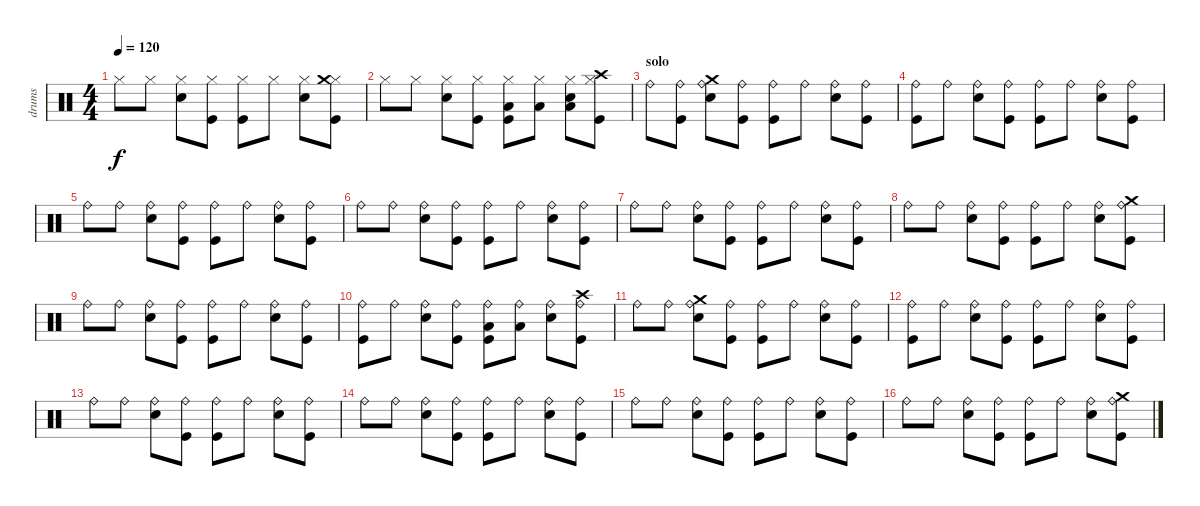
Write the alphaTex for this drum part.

\track ("drums" "drums") {instrument percussion}
\staff {score}
\articulation defaults
\ts (4 4)
\tempo 120
\clef neutral
\ks c "Hi-Hat (closed)".8{dy f} "Hi-Hat (closed)".8
("Electric Snare (hit)" "Hi-Hat (closed)").8 ("Kick (hit)" "Hi-Hat (closed)").8 ("Kick (hit)" "Hi-Hat (closed)").8 "Hi-Hat (closed)".8 ("Electric Snare (hit)" "Hi-Hat (closed)").8 ("Kick (hit)" "Hi-Hat (closed)" "Crash medium (hit)").8 |
"Hi-Hat (closed)".8 "Hi-Hat (closed)".8 ("Electric Snare (hit)" "Hi-Hat (closed)").8 ("Kick (hit)" "Hi-Hat (closed)").8 ("Kick (hit)" "Hi-Hat (closed)" "Low Tom (hit)").8 ("Hi-Hat (closed)" "Low Tom (hit)").8 ("Electric Snare (hit)" "Hi-Hat (closed)" "Low Tom (hit)").8 ("Kick (hit)" "Hi-Hat (closed)" "Crash high (hit)").8 |
\section ("" "solo")
"Ride (bell)".8 ("Kick (hit)" "Ride (bell)").8 ("Electric Snare (hit)" "Ride (bell)" "Crash medium (hit)").8 ("Kick (hit)" "Ride (bell)").8 ("Kick (hit)" "Ride (bell)").8 "Ride (bell)".8 ("Electric Snare (hit)" "Ride (bell)").8 ("Kick (hit)" "Ride (bell)").8 |
("Kick (hit)" "Ride (bell)").8 "Ride (bell)".8 ("Electric Snare (hit)" "Ride (bell)").8 ("Kick (hit)" "Ride (bell)").8 ("Kick (hit)" "Ride (bell)").8 "Ride (bell)".8 ("Electric Snare (hit)" "Ride (bell)").8 ("Kick (hit)" "Ride (bell)").8 |
"Ride (bell)".8 "Ride (bell)".8 ("Electric Snare (hit)" "Ride (bell)").8 ("Kick (hit)" "Ride (bell)").8 ("Kick (hit)" "Ride (bell)").8 "Ride (bell)".8 ("Electric Snare (hit)" "Ride (bell)").8 ("Kick (hit)" "Ride (bell)").8 |
"Ride (bell)".8 "Ride (bell)".8 ("Electric Snare (hit)" "Ride (bell)").8 ("Kick (hit)" "Ride (bell)").8 ("Kick (hit)" "Ride (bell)").8 "Ride (bell)".8 ("Electric Snare (hit)" "Ride (bell)").8 ("Kick (hit)" "Ride (bell)").8 |
"Ride (bell)".8 "Ride (bell)".8 ("Electric Snare (hit)" "Ride (bell)").8 ("Kick (hit)" "Ride (bell)").8 ("Kick (hit)" "Ride (bell)").8 "Ride (bell)".8 ("Electric Snare (hit)" "Ride (bell)").8 ("Kick (hit)" "Ride (bell)").8 |
"Ride (bell)".8 "Ride (bell)".8 ("Electric Snare (hit)" "Ride (bell)").8 ("Kick (hit)" "Ride (bell)").8 ("Kick (hit)" "Ride (bell)").8 "Ride (bell)".8 ("Electric Snare (hit)" "Ride (bell)").8 ("Kick (hit)" "Ride (bell)" "Crash medium (hit)").8 |
"Ride (bell)".8 "Ride (bell)".8 ("Electric Snare (hit)" "Ride (bell)").8 ("Kick (hit)" "Ride (bell)").8 ("Kick (hit)" "Ride (bell)").8 "Ride (bell)".8 ("Electric Snare (hit)" "Ride (bell)").8 ("Kick (hit)" "Ride (bell)").8 |
("Kick (hit)" "Ride (bell)").8 "Ride (bell)".8 ("Electric Snare (hit)" "Ride (bell)").8 ("Kick (hit)" "Ride (bell)").8 ("Kick (hit)" "Low Tom (hit)" "Ride (bell)").8 ("Low Tom (hit)" "Ride (bell)").8 ("Electric Snare (hit)" "Ride (bell)").8 ("Kick (hit)" "Ride (bell)" "Crash high (hit)").8 |
"Ride (bell)".8 "Ride (bell)".8 ("Electric Snare (hit)" "Ride (bell)" "Crash medium (hit)").8 ("Kick (hit)" "Ride (bell)").8 ("Kick (hit)" "Ride (bell)").8 "Ride (bell)".8 ("Electric Snare (hit)" "Ride (bell)").8 ("Kick (hit)" "Ride (bell)").8 |
("Kick (hit)" "Ride (bell)").8 "Ride (bell)".8 ("Electric Snare (hit)" "Ride (bell)").8 ("Kick (hit)" "Ride (bell)").8 ("Kick (hit)" "Ride (bell)").8 "Ride (bell)".8 ("Electric Snare (hit)" "Ride (bell)").8 ("Kick (hit)" "Ride (bell)").8 |
"Ride (bell)".8 "Ride (bell)".8 ("Electric Snare (hit)" "Ride (bell)").8 ("Kick (hit)" "Ride (bell)").8 ("Kick (hit)" "Ride (bell)").8 "Ride (bell)".8 ("Electric Snare (hit)" "Ride (bell)").8 ("Kick (hit)" "Ride (bell)").8 |
"Ride (bell)".8 "Ride (bell)".8 ("Electric Snare (hit)" "Ride (bell)").8 ("Kick (hit)" "Ride (bell)").8 ("Kick (hit)" "Ride (bell)").8 "Ride (bell)".8 ("Electric Snare (hit)" "Ride (bell)").8 ("Kick (hit)" "Ride (bell)").8 |
"Ride (bell)".8 "Ride (bell)".8 ("Electric Snare (hit)" "Ride (bell)").8 ("Kick (hit)" "Ride (bell)").8 ("Kick (hit)" "Ride (bell)").8 "Ride (bell)".8 ("Electric Snare (hit)" "Ride (bell)").8 ("Kick (hit)" "Ride (bell)").8 |
"Ride (bell)".8 "Ride (bell)".8 ("Electric Snare (hit)" "Ride (bell)").8 ("Kick (hit)" "Ride (bell)").8 ("Kick (hit)" "Ride (bell)").8 "Ride (bell)".8 ("Electric Snare (hit)" "Ride (bell)").8 ("Kick (hit)" "Ride (bell)" "Crash medium (hit)").8
